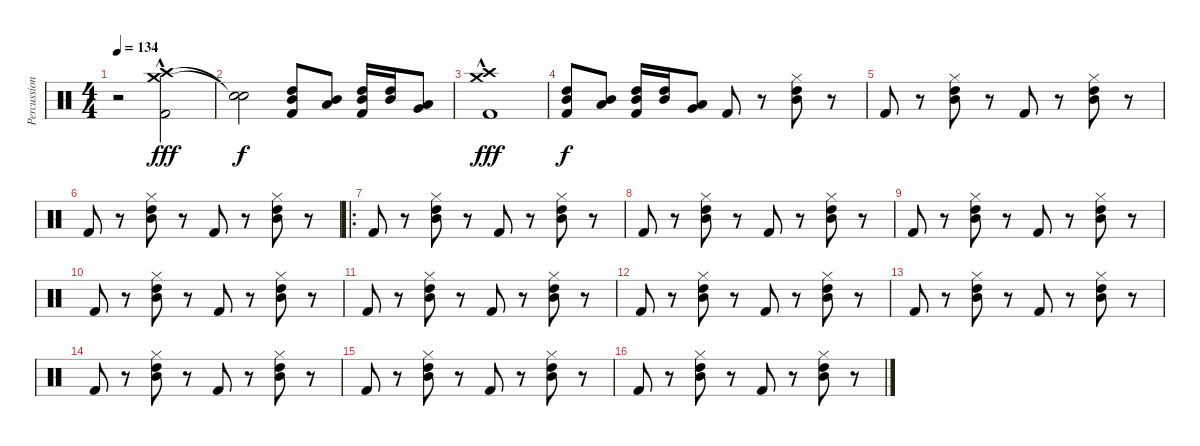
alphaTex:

\track ("Percussion" "Percussion") {instrument percussion}
\staff {score}
\articulation defaults
\ts (4 4)
\tempo 134
\clef neutral
\ks c
r.2{dy fff} ("Crash high (hit)"{hac} "Crash medium (hit)"{hac} "Kick (hit) 2").2 |
("Snare (hit)"{t} "Snare (hit)"{t}).2{dy f} ("Mid Tom (hit)" "High Tom (hit)" "Kick (hit) 2").8 ("Low Tom (hit)" "Mid Tom (hit)").8 ("Mid Tom (hit)" "High Tom (hit)" "Kick (hit) 2").16 ("Mid Tom (hit)" "High Tom (hit)").16 ("Low Tom (hit)" "Very Low Tom (hit)").8 |
("Crash high (hit)"{hac} "Crash medium (hit)"{hac} "Kick (hit) 2").1{dy fff} |
("Mid Tom (hit)" "High Tom (hit)" "Kick (hit) 2").8{dy f} ("Low Tom (hit)" "Mid Tom (hit)").8 ("Mid Tom (hit)" "High Tom (hit)" "Kick (hit) 2").16 ("Mid Tom (hit)" "High Tom (hit)").16 ("Low Tom (hit)" "Very Low Tom (hit)").8 "Kick (hit) 2".8 r.8 ("Hi-Hat (closed)" "Mid Tom (hit)" "High Tom (hit)").8 r.8 |
"Kick (hit) 2".8 r.8 ("Hi-Hat (closed)" "Mid Tom (hit)" "High Tom (hit)").8 r.8 "Kick (hit) 2".8 r.8 ("Hi-Hat (closed)" "Mid Tom (hit)" "High Tom (hit)").8 r.8 |
"Kick (hit) 2".8 r.8 ("Hi-Hat (closed)" "Mid Tom (hit)" "High Tom (hit)").8 r.8 "Kick (hit) 2".8 r.8 ("Hi-Hat (closed)" "Mid Tom (hit)" "High Tom (hit)").8 r.8 |
\ro "Kick (hit) 2".8
r.8 ("Hi-Hat (closed)" "Mid Tom (hit)" "High Tom (hit)").8 r.8 "Kick (hit) 2".8 r.8 ("Hi-Hat (closed)" "Mid Tom (hit)" "High Tom (hit)").8 r.8 |
"Kick (hit) 2".8 r.8 ("Hi-Hat (closed)" "Mid Tom (hit)" "High Tom (hit)").8 r.8 "Kick (hit) 2".8 r.8 ("Hi-Hat (closed)" "Mid Tom (hit)" "High Tom (hit)").8 r.8 |
"Kick (hit) 2".8 r.8 ("Hi-Hat (closed)" "Mid Tom (hit)" "High Tom (hit)").8 r.8 "Kick (hit) 2".8 r.8 ("Hi-Hat (closed)" "Mid Tom (hit)" "High Tom (hit)").8 r.8 |
"Kick (hit) 2".8 r.8 ("Hi-Hat (closed)" "Mid Tom (hit)" "High Tom (hit)").8 r.8 "Kick (hit) 2".8 r.8 ("Hi-Hat (closed)" "Mid Tom (hit)" "High Tom (hit)").8 r.8 |
"Kick (hit) 2".8 r.8 ("Hi-Hat (closed)" "Mid Tom (hit)" "High Tom (hit)").8 r.8 "Kick (hit) 2".8 r.8 ("Hi-Hat (closed)" "Mid Tom (hit)" "High Tom (hit)").8 r.8 |
"Kick (hit) 2".8 r.8 ("Hi-Hat (closed)" "Mid Tom (hit)" "High Tom (hit)").8 r.8 "Kick (hit) 2".8 r.8 ("Hi-Hat (closed)" "Mid Tom (hit)" "High Tom (hit)").8 r.8 |
"Kick (hit) 2".8 r.8 ("Hi-Hat (closed)" "Mid Tom (hit)" "High Tom (hit)").8 r.8 "Kick (hit) 2".8 r.8 ("Hi-Hat (closed)" "Mid Tom (hit)" "High Tom (hit)").8 r.8 |
"Kick (hit) 2".8 r.8 ("Hi-Hat (closed)" "Mid Tom (hit)" "High Tom (hit)").8 r.8 "Kick (hit) 2".8 r.8 ("Hi-Hat (closed)" "Mid Tom (hit)" "High Tom (hit)").8 r.8 |
"Kick (hit) 2".8 r.8 ("Hi-Hat (closed)" "Mid Tom (hit)" "High Tom (hit)").8 r.8 "Kick (hit) 2".8 r.8 ("Hi-Hat (closed)" "Mid Tom (hit)" "High Tom (hit)").8 r.8 |
"Kick (hit) 2".8 r.8 ("Hi-Hat (closed)" "Mid Tom (hit)" "High Tom (hit)").8 r.8 "Kick (hit) 2".8 r.8 ("Hi-Hat (closed)" "Mid Tom (hit)" "High Tom (hit)").8 r.8
